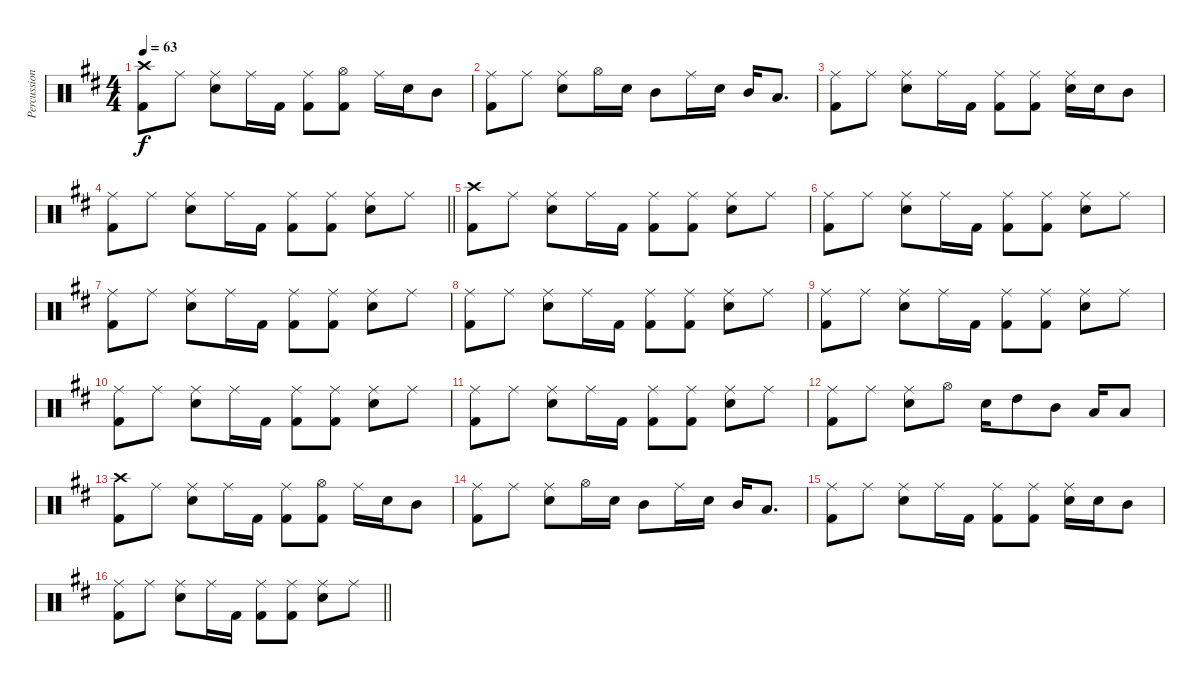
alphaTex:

\track ("Percussion" "Percussion") {instrument percussion}
\staff {score}
\articulation defaults
\ts (4 4)
\tempo 63
\clef neutral
\ks d
("Crash high (hit)" "Kick (hit) 2").8{dy f volume 9} "Ride (middle)".8 ("Ride (middle)" "Snare (hit) 2").8 "Ride (middle)".16 "Kick (hit) 2".16 ("Ride (middle)" "Kick (hit) 2").8 ("Hi-Hat (open)" "Kick (hit) 2").8 "Ride (middle)".16 "Snare (hit) 2".16 "Mid Tom (hit)".8 |
("Ride (middle)" "Kick (hit) 2").8 "Ride (middle)".8 ("Ride (middle)" "Snare (hit) 2").8 "Hi-Hat (open)".16 "Snare (hit) 2".16 "Mid Tom (hit)".8 "Ride (middle)".16 "Snare (hit) 2".16 "Mid Tom (hit)".16 "Low Tom (hit)".8{d} |
("Ride (middle)" "Kick (hit) 2").8 "Ride (middle)".8 ("Ride (middle)" "Snare (hit) 2").8 "Ride (middle)".16 "Kick (hit) 2".16 ("Ride (middle)" "Kick (hit) 2").8 ("Ride (middle)" "Kick (hit) 2").8 ("Ride (middle)" "Snare (hit) 2").16 "Snare (hit) 2".16 "Mid Tom (hit)".8 |
\barLineRight lightlight
("Ride (middle)" "Kick (hit) 2").8 "Ride (middle)".8 ("Ride (middle)" "Snare (hit) 2").8 "Ride (middle)".16 "Kick (hit) 2".16 ("Ride (middle)" "Kick (hit) 2").8 ("Ride (middle)" "Kick (hit) 2").8 ("Ride (middle)" "Snare (hit) 2").8 "Ride (middle)".8 |
("Crash high (hit)" "Kick (hit) 2").8 "Ride (middle)".8 ("Ride (middle)" "Snare (hit) 2").8 "Ride (middle)".16 "Kick (hit) 2".16 ("Ride (middle)" "Kick (hit) 2").8 ("Ride (middle)" "Kick (hit) 2").8 ("Ride (middle)" "Snare (hit) 2").8 "Ride (middle)".8 |
("Ride (middle)" "Kick (hit) 2").8 "Ride (middle)".8 ("Ride (middle)" "Snare (hit) 2").8 "Ride (middle)".16 "Kick (hit) 2".16 ("Ride (middle)" "Kick (hit) 2").8 ("Ride (middle)" "Kick (hit) 2").8 ("Ride (middle)" "Snare (hit) 2").8 "Ride (middle)".8 |
("Ride (middle)" "Kick (hit) 2").8 "Ride (middle)".8 ("Ride (middle)" "Snare (hit) 2").8 "Ride (middle)".16 "Kick (hit) 2".16 ("Ride (middle)" "Kick (hit) 2").8 ("Ride (middle)" "Kick (hit) 2").8 ("Ride (middle)" "Snare (hit) 2").8 "Ride (middle)".8 |
("Ride (middle)" "Kick (hit) 2").8 "Ride (middle)".8 ("Ride (middle)" "Snare (hit) 2").8 "Ride (middle)".16 "Kick (hit) 2".16 ("Ride (middle)" "Kick (hit) 2").8 ("Ride (middle)" "Kick (hit) 2").8 ("Ride (middle)" "Snare (hit) 2").8 "Ride (middle)".8 |
("Ride (middle)" "Kick (hit) 2").8 "Ride (middle)".8 ("Ride (middle)" "Snare (hit) 2").8 "Ride (middle)".16 "Kick (hit) 2".16 ("Ride (middle)" "Kick (hit) 2").8 ("Ride (middle)" "Kick (hit) 2").8 ("Ride (middle)" "Snare (hit) 2").8 "Ride (middle)".8 |
("Ride (middle)" "Kick (hit) 2").8 "Ride (middle)".8 ("Ride (middle)" "Snare (hit) 2").8 "Ride (middle)".16 "Kick (hit) 2".16 ("Ride (middle)" "Kick (hit) 2").8 ("Ride (middle)" "Kick (hit) 2").8 ("Ride (middle)" "Snare (hit) 2").8 "Ride (middle)".8 |
("Ride (middle)" "Kick (hit) 2").8 "Ride (middle)".8 ("Ride (middle)" "Snare (hit) 2").8 "Ride (middle)".16 "Kick (hit) 2".16 ("Ride (middle)" "Kick (hit) 2").8 ("Ride (middle)" "Kick (hit) 2").8 ("Ride (middle)" "Snare (hit) 2").8 "Ride (middle)".8 |
("Ride (middle)" "Kick (hit) 2").8 "Ride (middle)".8 ("Ride (middle)" "Snare (hit) 2").8 "Hi-Hat (open)".8 "Snare (hit) 2".16 "High Tom (hit)".8 "Mid Tom (hit)".8 "Low Tom (hit)".16 "Low Tom (hit)".8 |
("Crash high (hit)" "Kick (hit) 2").8{volume 9} "Ride (middle)".8 ("Ride (middle)" "Snare (hit) 2").8 "Ride (middle)".16 "Kick (hit) 2".16 ("Ride (middle)" "Kick (hit) 2").8 ("Hi-Hat (open)" "Kick (hit) 2").8 "Ride (middle)".16 "Snare (hit) 2".16 "Mid Tom (hit)".8 |
("Ride (middle)" "Kick (hit) 2").8 "Ride (middle)".8 ("Ride (middle)" "Snare (hit) 2").8 "Hi-Hat (open)".16 "Snare (hit) 2".16 "Mid Tom (hit)".8 "Ride (middle)".16 "Snare (hit) 2".16 "Mid Tom (hit)".16 "Low Tom (hit)".8{d} |
("Ride (middle)" "Kick (hit) 2").8 "Ride (middle)".8 ("Ride (middle)" "Snare (hit) 2").8 "Ride (middle)".16 "Kick (hit) 2".16 ("Ride (middle)" "Kick (hit) 2").8 ("Ride (middle)" "Kick (hit) 2").8 ("Ride (middle)" "Snare (hit) 2").16 "Snare (hit) 2".16 "Mid Tom (hit)".8 |
\barLineRight lightlight
("Ride (middle)" "Kick (hit) 2").8 "Ride (middle)".8 ("Ride (middle)" "Snare (hit) 2").8 "Ride (middle)".16 "Kick (hit) 2".16 ("Ride (middle)" "Kick (hit) 2").8 ("Ride (middle)" "Kick (hit) 2").8 ("Ride (middle)" "Snare (hit) 2").8 "Ride (middle)".8
